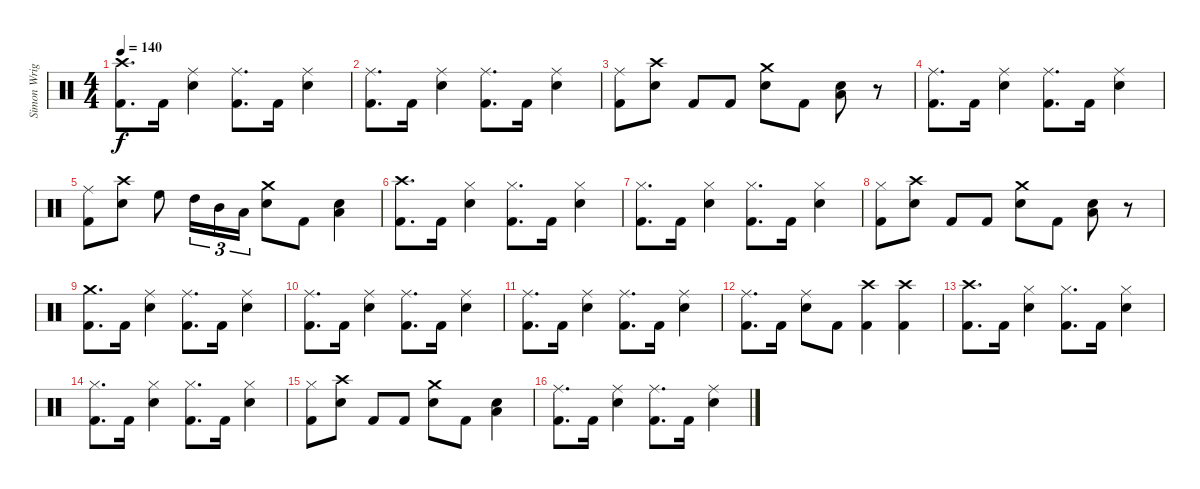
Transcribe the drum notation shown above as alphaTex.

\track ("Simon Wright" "Simon Wrig") {instrument percussion}
\staff {score}
\articulation defaults
\ts (4 4)
\tempo 140
\clef neutral
\ks c
("Crash high (hit)" "Kick (hit) 2").8{d dy f} "Kick (hit) 2".16 ("Ride (middle)" "Snare (hit) 2").4 ("Ride (middle)" "Kick (hit) 2").8{d} "Kick (hit) 2".16 ("Ride (middle)" "Snare (hit) 2").4 |
("Ride (middle)" "Kick (hit) 2").8{d} "Kick (hit) 2".16 ("Ride (middle)" "Snare (hit) 2").4 ("Ride (middle)" "Kick (hit) 2").8{d} "Kick (hit) 2".16 ("Ride (middle)" "Snare (hit) 2").4 |
("Ride (middle)" "Kick (hit) 2").8 ("Crash high (hit)" "Snare (hit) 2").8 "Kick (hit) 2".8 "Kick (hit) 2".8 ("Crash medium (hit)" "Snare (hit) 2").8 "Kick (hit) 2".8 ("Low Tom (hit)" "Snare (hit) 2").8 r.8 |
("Ride (middle)" "Kick (hit) 2").8{d} "Kick (hit) 2".16 ("Ride (middle)" "Snare (hit) 2").4 ("Ride (middle)" "Kick (hit) 2").8{d} "Kick (hit) 2".16 ("Ride (middle)" "Snare (hit) 2").4 |
("Ride (middle)" "Kick (hit) 2").8 ("Crash high (hit)" "Snare (hit) 2").8 "High Floor Tom (hit)".8 "High Tom (hit)".16{tu (3 2)} "Mid Tom (hit)".16{tu (3 2)} "Low Tom (hit)".16{tu (3 2)} ("Crash medium (hit)" "Snare (hit) 2").8 "Kick (hit) 2".8 ("Low Tom (hit)" "Snare (hit) 2").4 |
("Crash high (hit)" "Kick (hit) 2").8{d} "Kick (hit) 2".16 ("Hi-Hat (closed)" "Snare (hit) 2").4 ("Hi-Hat (closed)" "Kick (hit) 2").8{d} "Kick (hit) 2".16 ("Hi-Hat (closed)" "Snare (hit) 2").4 |
("Hi-Hat (closed)" "Kick (hit) 2").8{d} "Kick (hit) 2".16 ("Hi-Hat (closed)" "Snare (hit) 2").4 ("Hi-Hat (closed)" "Kick (hit) 2").8{d} "Kick (hit) 2".16 ("Hi-Hat (closed)" "Snare (hit) 2").4 |
("Hi-Hat (closed)" "Kick (hit) 2").8 ("Crash high (hit)" "Snare (hit) 2").8 "Kick (hit) 2".8 "Kick (hit) 2".8 ("Crash medium (hit)" "Snare (hit) 2").8 "Kick (hit) 2".8 ("Low Tom (hit)" "Snare (hit) 2").8 r.8 |
("Crash medium (hit)" "Kick (hit) 2").8{d} "Kick (hit) 2".16 ("Ride (middle)" "Snare (hit) 2").4 ("Ride (middle)" "Kick (hit) 2").8{d} "Kick (hit) 2".16 ("Ride (middle)" "Snare (hit) 2").4 |
("Ride (middle)" "Kick (hit) 2").8{d} "Kick (hit) 2".16 ("Ride (middle)" "Snare (hit) 2").4 ("Ride (middle)" "Kick (hit) 2").8{d} "Kick (hit) 2".16 ("Ride (middle)" "Snare (hit) 2").4 |
("Ride (middle)" "Kick (hit) 2").8{d} "Kick (hit) 2".16 ("Ride (middle)" "Snare (hit) 2").4 ("Ride (middle)" "Kick (hit) 2").8{d} "Kick (hit) 2".16 ("Ride (middle)" "Snare (hit) 2").4 |
("Ride (middle)" "Kick (hit) 2").8{d} "Kick (hit) 2".16 ("Ride (middle)" "Snare (hit) 2").8 "Kick (hit) 2".8 ("Crash high (hit)" "Kick (hit) 2").4 ("Crash high (hit)" "Kick (hit) 2").4 |
("Crash high (hit)" "Kick (hit) 2").8{d} "Kick (hit) 2".16 ("Hi-Hat (closed)" "Snare (hit) 2").4 ("Hi-Hat (closed)" "Kick (hit) 2").8{d} "Kick (hit) 2".16 ("Hi-Hat (closed)" "Snare (hit) 2").4 |
("Hi-Hat (closed)" "Kick (hit) 2").8{d} "Kick (hit) 2".16 ("Hi-Hat (closed)" "Snare (hit) 2").4 ("Hi-Hat (closed)" "Kick (hit) 2").8{d} "Kick (hit) 2".16 ("Hi-Hat (closed)" "Snare (hit) 2").4 |
("Hi-Hat (closed)" "Kick (hit) 2").8 ("Crash high (hit)" "Snare (hit) 2").8 "Kick (hit) 2".8 "Kick (hit) 2".8 ("Crash medium (hit)" "Snare (hit) 2").8 "Kick (hit) 2".8 ("Low Tom (hit)" "Snare (hit) 2").4 |
("Ride (middle)" "Kick (hit) 2").8{d} "Kick (hit) 2".16 ("Ride (middle)" "Snare (hit) 2").4 ("Ride (middle)" "Kick (hit) 2").8{d} "Kick (hit) 2".16 ("Ride (middle)" "Snare (hit) 2").4
